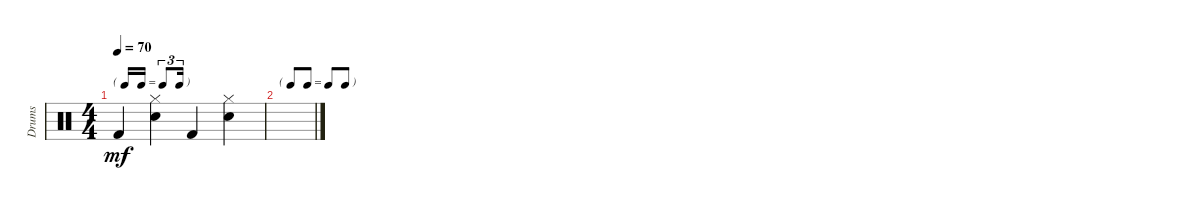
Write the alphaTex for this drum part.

\defaultSystemsLayout 4
\bracketExtendMode groupsimilarinstruments
\otherSystemsTrackNameOrientation horizontal
\track ("Drumkit" "Drums") {instrument percussion}
\staff {score}
\articulation defaults
\ts (4 4)
\tf triplet16th
\scale
0.495252
\tempo 70
\accidentals auto
\clef neutral
\ottava regular
\simile none
\ks c "Kick (hit) 2".4{dy mf beam Up}
("Snare (hit) 2" "Hi-Hat (closed)").4{beam Down} "Kick (hit) 2".4{beam Up} ("Snare (hit) 2" "Hi-Hat (closed)").4{beam Down} |
\tf none
\scale
0.114503
